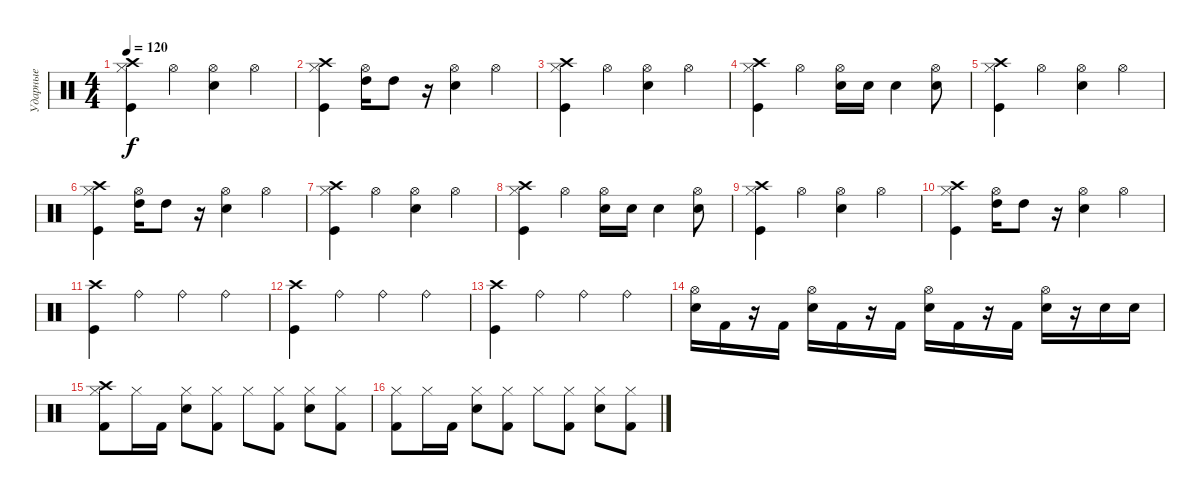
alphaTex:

\track ("Ударные" "Ударные") {instrument percussion}
\staff {score}
\articulation defaults
\ts (4 4)
\tempo 120
\clef neutral
\ks c
("Crash high (hit)" "Hi-Hat (closed)" "Kick (hit)").4{dy f} "Hi-Hat (open)".4 ("Hi-Hat (open)" "Electric Snare (hit)").4 "Hi-Hat (open)".4 |
("Hi-Hat (closed)" "Crash high (hit)" "Kick (hit)").4 ("Hi-Hat (open)" "High Tom (hit)").16 "High Tom (hit)".8 r.16 ("Hi-Hat (open)" "Electric Snare (hit)").4 "Hi-Hat (open)".4 |
("Crash high (hit)" "Hi-Hat (closed)" "Kick (hit)").4 "Hi-Hat (open)".4 ("Hi-Hat (open)" "Electric Snare (hit)").4 "Hi-Hat (open)".4 |
("Crash high (hit)" "Hi-Hat (closed)" "Kick (hit)").4 "Hi-Hat (open)".4 ("Hi-Hat (open)" "Electric Snare (hit)").16 "Electric Snare (hit)".16 "Electric Snare (hit)".4 ("Hi-Hat (open)" "Electric Snare (hit)").8 |
("Crash high (hit)" "Hi-Hat (closed)" "Kick (hit)").4 "Hi-Hat (open)".4 ("Hi-Hat (open)" "Electric Snare (hit)").4 "Hi-Hat (open)".4 |
("Hi-Hat (closed)" "Crash high (hit)" "Kick (hit)").4 ("Hi-Hat (open)" "High Tom (hit)").16 "High Tom (hit)".8 r.16 ("Hi-Hat (open)" "Electric Snare (hit)").4 "Hi-Hat (open)".4 |
("Crash high (hit)" "Hi-Hat (closed)" "Kick (hit)").4 "Hi-Hat (open)".4 ("Hi-Hat (open)" "Electric Snare (hit)").4 "Hi-Hat (open)".4 |
("Crash high (hit)" "Hi-Hat (closed)" "Kick (hit)").4 "Hi-Hat (open)".4 ("Hi-Hat (open)" "Electric Snare (hit)").16 "Electric Snare (hit)".16 "Electric Snare (hit)".4 ("Hi-Hat (open)" "Electric Snare (hit)").8 |
("Crash high (hit)" "Hi-Hat (closed)" "Kick (hit)").4 "Hi-Hat (open)".4 ("Hi-Hat (open)" "Electric Snare (hit)").4 "Hi-Hat (open)".4 |
("Hi-Hat (closed)" "Crash high (hit)" "Kick (hit)").4 ("Hi-Hat (open)" "High Tom (hit)").16 "High Tom (hit)".8 r.16 ("Hi-Hat (open)" "Electric Snare (hit)").4 "Hi-Hat (open)".4 |
("Crash high (hit)" "Kick (hit)").4 "Ride (bell)".4 "Ride (bell)".4 "Ride (bell)".4 |
("Crash high (hit)" "Kick (hit)").4 "Ride (bell)".4 "Ride (bell)".4 "Ride (bell)".4 |
("Crash high (hit)" "Kick (hit)").4 "Ride (bell)".4 "Ride (bell)".4 "Ride (bell)".4 |
("Hi-Hat (open)" "Snare (hit) 2").16 "Kick (hit) 2".16 r.16 "Kick (hit) 2".16 ("Hi-Hat (open)" "Snare (hit) 2").16 "Kick (hit) 2".16 r.16 "Kick (hit) 2".16 ("Hi-Hat (open)" "Snare (hit) 2").16 "Kick (hit) 2".16 r.16 "Kick (hit) 2".16 ("Hi-Hat (open)" "Snare (hit) 2").16 r.16 "Snare (hit) 2".16 "Snare (hit) 2".16 |
("Hi-Hat (closed)" "Kick (hit) 2" "Crash high (hit)").8 "Hi-Hat (closed)".16 "Kick (hit) 2".16 ("Hi-Hat (closed)" "Electric Snare (hit)").8 ("Hi-Hat (closed)" "Kick (hit) 2").8 "Hi-Hat (closed)".8 ("Hi-Hat (closed)" "Kick (hit) 2").8 ("Hi-Hat (closed)" "Electric Snare (hit)").8 ("Hi-Hat (closed)" "Kick (hit) 2").8 |
("Hi-Hat (closed)" "Kick (hit) 2").8 "Hi-Hat (closed)".16 "Kick (hit) 2".16 ("Hi-Hat (closed)" "Electric Snare (hit)").8 ("Hi-Hat (closed)" "Kick (hit) 2").8 "Hi-Hat (closed)".8 ("Hi-Hat (closed)" "Kick (hit) 2").8 ("Hi-Hat (closed)" "Electric Snare (hit)").8 ("Hi-Hat (closed)" "Kick (hit) 2").8
